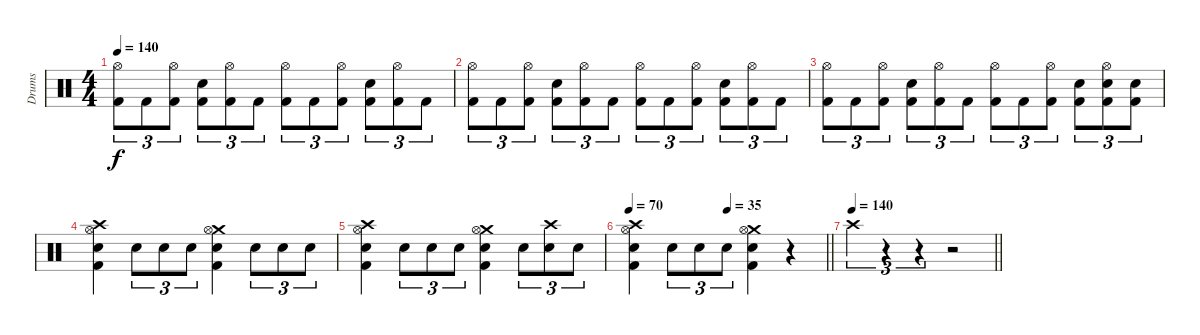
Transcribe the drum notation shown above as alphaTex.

\track ("Drums" "Drums") {instrument percussion}
\staff {score}
\articulation defaults
\ts (4 4)
\tempo 140
\clef neutral
\ks c
("Hi-Hat (open)" "Kick (hit) 2").8{tu (3 2) dy f} "Kick (hit) 2".8{tu (3 2)} ("Hi-Hat (open)" "Kick (hit) 2").8{tu (3 2)} ("Electric Snare (hit)" "Kick (hit) 2").8{tu (3 2)} ("Hi-Hat (open)" "Kick (hit) 2").8{tu (3 2)} "Kick (hit) 2".8{tu (3 2)} ("Hi-Hat (open)" "Kick (hit) 2").8{tu (3 2)} "Kick (hit) 2".8{tu (3 2)} ("Hi-Hat (open)" "Kick (hit) 2").8{tu (3 2)} ("Electric Snare (hit)" "Kick (hit) 2").8{tu (3 2)} ("Hi-Hat (open)" "Kick (hit) 2").8{tu (3 2)} "Kick (hit) 2".8{tu (3 2)} |
("Hi-Hat (open)" "Kick (hit) 2").8{tu (3 2)} "Kick (hit) 2".8{tu (3 2)} ("Hi-Hat (open)" "Kick (hit) 2").8{tu (3 2)} ("Electric Snare (hit)" "Kick (hit) 2").8{tu (3 2)} ("Hi-Hat (open)" "Kick (hit) 2").8{tu (3 2)} "Kick (hit) 2".8{tu (3 2)} ("Hi-Hat (open)" "Kick (hit) 2").8{tu (3 2)} "Kick (hit) 2".8{tu (3 2)} ("Hi-Hat (open)" "Kick (hit) 2").8{tu (3 2)} ("Electric Snare (hit)" "Kick (hit) 2").8{tu (3 2)} ("Hi-Hat (open)" "Kick (hit) 2").8{tu (3 2)} "Kick (hit) 2".8{tu (3 2)} |
("Hi-Hat (open)" "Kick (hit) 2").8{tu (3 2)} "Kick (hit) 2".8{tu (3 2)} ("Hi-Hat (open)" "Kick (hit) 2").8{tu (3 2)} ("Electric Snare (hit)" "Kick (hit) 2").8{tu (3 2)} ("Hi-Hat (open)" "Kick (hit) 2").8{tu (3 2)} "Kick (hit) 2".8{tu (3 2)} ("Hi-Hat (open)" "Kick (hit) 2").8{tu (3 2)} "Kick (hit) 2".8{tu (3 2)} ("Hi-Hat (open)" "Kick (hit) 2").8{tu (3 2)} ("Electric Snare (hit)" "Kick (hit) 2").8{tu (3 2)} ("Hi-Hat (open)" "Electric Snare (hit)" "Kick (hit) 2").8{tu (3 2)} ("Electric Snare (hit)" "Kick (hit) 2").8{tu (3 2)} |
("Crash high (hit)" "Hi-Hat (open)" "Electric Snare (hit)" "Kick (hit) 2").4 "Electric Snare (hit)".8{tu (3 2)} "Electric Snare (hit)".8{tu (3 2)} "Electric Snare (hit)".8{tu (3 2)} ("Crash medium (hit)" "Hi-Hat (open)" "Electric Snare (hit)" "Kick (hit) 2").4 "Electric Snare (hit)".8{tu (3 2)} "Electric Snare (hit)".8{tu (3 2)} "Electric Snare (hit)".8{tu (3 2)} |
("Crash high (hit)" "Hi-Hat (open)" "Electric Snare (hit)" "Kick (hit) 2").4 "Electric Snare (hit)".8{tu (3 2)} "Electric Snare (hit)".8{tu (3 2)} "Electric Snare (hit)".8{tu (3 2)} ("Crash medium (hit)" "Hi-Hat (open)" "Electric Snare (hit)" "Kick (hit) 2").4 "Electric Snare (hit)".8{tu (3 2)} ("Crash high (hit)" "Electric Snare (hit)").8{tu (3 2)} "Electric Snare (hit)".8{tu (3 2)} |
\tempo 70
\tempo (35 0.5)
\barLineRight lightlight
("Crash high (hit)" "Hi-Hat (open)" "Electric Snare (hit)" "Kick (hit) 2").4 "Electric Snare (hit)".8{tu (3 2)} "Electric Snare (hit)".8{tu (3 2)} "Electric Snare (hit)".8{tu (3 2)} ("Crash medium (hit)" "Hi-Hat (open)" "Electric Snare (hit)" "Kick (hit) 2").4 r.4 |
\tempo 140
\barLineRight lightlight "Crash high (hit)".4{tu (3 2)}
r.4{tu (3 2)} r.4{tu (3 2)} r.2
